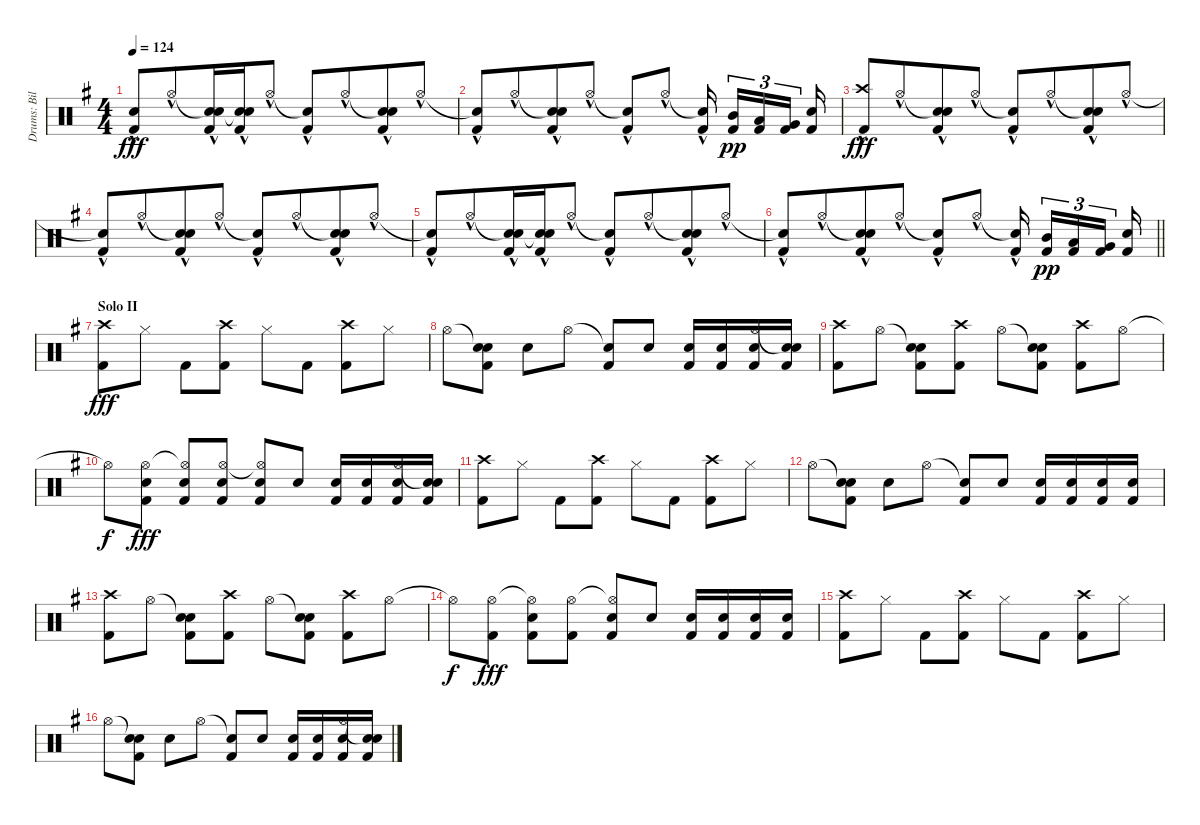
\track ("Drums: Bill" "Drums: Bil") {instrument percussion}
\staff {score}
\articulation defaults
\ts (4 4)
\tempo 124
\clef neutral
\ks g
("Snare (hit)"{t} "Kick (hit) 2"{hac}).8{dy fff beam Up beam merge} "Hi-Hat (open)"{hac}.8{beam Up beam merge} ("Snare (hit)"{t} "Electric Snare (hit)"{hac} "Kick (hit) 2"{hac}).16{beam Up beam merge} ("Snare (hit)"{t} "Electric Snare (hit)"{hac} "Kick (hit) 2"{hac}).16{beam Up beam merge} "Hi-Hat (open)"{hac}.8{beam Up} ("Snare (hit)"{t} "Kick (hit) 2"{hac}).8{beam Up beam merge} "Hi-Hat (open)"{hac}.8{beam Up beam merge} ("Snare (hit)"{t} "Electric Snare (hit)"{hac} "Kick (hit) 2"{hac}).8{beam Up beam merge} "Hi-Hat (open)"{hac}.8{beam Up} |
("Snare (hit)"{t} "Kick (hit) 2"{hac}).8{beam Up beam merge} "Hi-Hat (open)"{hac}.8{beam Up beam merge} ("Snare (hit)"{t} "Electric Snare (hit)"{hac} "Kick (hit) 2"{hac}).8{beam Up beam merge} "Hi-Hat (open)"{hac}.8{beam Up} ("Snare (hit)"{t} "Kick (hit) 2"{hac}).8{beam Up beam merge} "Hi-Hat (open)"{hac}.8{beam Up} ("Snare (hit)"{t} "Kick (hit) 2"{hac}).16{beam Up beam splitsecondary} ("Mid Tom (hit)" "Kick (hit) 2").16{tu (3 2) dy pp} ("Low Tom (hit)" "Kick (hit) 2").16{tu (3 2)} ("Very Low Tom (hit)" "Kick (hit) 2").16{tu (3 2) beam splitsecondary} ("Electric Snare (hit)" "Kick (hit) 2").16 |
("Crash high (hit)"{hac} "Kick (hit) 2"{hac}).8{dy fff beam Up beam merge} "Hi-Hat (open)"{hac}.8{beam Up beam merge} ("Snare (hit)"{t} "Electric Snare (hit)"{hac} "Kick (hit) 2"{hac}).8{beam Up beam merge} "Hi-Hat (open)"{hac}.8{beam Up} ("Snare (hit)"{t} "Kick (hit) 2"{hac}).8{beam Up beam merge} "Hi-Hat (open)"{hac}.8{beam Up beam merge} ("Snare (hit)"{t} "Electric Snare (hit)"{hac} "Kick (hit) 2"{hac}).8{beam Up beam merge} "Hi-Hat (open)"{hac}.8{beam Up} |
("Snare (hit)"{t} "Kick (hit) 2"{hac}).8{beam Up beam merge} "Hi-Hat (open)"{hac}.8{beam Up beam merge} ("Snare (hit)"{t} "Electric Snare (hit)"{hac} "Kick (hit) 2"{hac}).8{beam Up beam merge} "Hi-Hat (open)"{hac}.8{beam Up} ("Snare (hit)"{t} "Kick (hit) 2"{hac}).8{beam Up beam merge} "Hi-Hat (open)"{hac}.8{beam Up beam merge} ("Snare (hit)"{t} "Electric Snare (hit)"{hac} "Kick (hit) 2"{hac}).8{beam Up beam merge} "Hi-Hat (open)"{hac}.8{beam Up} |
("Snare (hit)"{t} "Kick (hit) 2"{hac}).8{beam Up beam merge} "Hi-Hat (open)"{hac}.8{beam Up beam merge} ("Snare (hit)"{t} "Electric Snare (hit)"{hac} "Kick (hit) 2"{hac}).16{beam Up beam merge} ("Snare (hit)"{t} "Electric Snare (hit)"{hac} "Kick (hit) 2"{hac}).16{beam Up beam merge} "Hi-Hat (open)"{hac}.8{beam Up} ("Snare (hit)"{t} "Kick (hit) 2"{hac}).8{beam Up beam merge} "Hi-Hat (open)"{hac}.8{beam Up beam merge} ("Snare (hit)"{t} "Electric Snare (hit)"{hac} "Kick (hit) 2"{hac}).8{beam Up beam merge} "Hi-Hat (open)"{hac}.8{beam Up} |
\barLineRight lightlight
("Snare (hit)"{t} "Kick (hit) 2"{hac}).8{beam Up beam merge} "Hi-Hat (open)"{hac}.8{beam Up beam merge} ("Snare (hit)"{t} "Electric Snare (hit)"{hac} "Kick (hit) 2"{hac}).8{beam Up beam merge} "Hi-Hat (open)"{hac}.8{beam Up} ("Snare (hit)"{t} "Kick (hit) 2"{hac}).8{beam Up beam merge} "Hi-Hat (open)"{hac}.8{beam Up} ("Snare (hit)"{t} "Kick (hit) 2"{hac}).16{beam Up beam splitsecondary} ("Mid Tom (hit)" "Kick (hit) 2").16{tu (3 2) dy pp} ("Low Tom (hit)" "Kick (hit) 2").16{tu (3 2)} ("Very Low Tom (hit)" "Kick (hit) 2").16{tu (3 2) beam splitsecondary} ("Electric Snare (hit)" "Kick (hit) 2").16 |
\section ("" "Solo II")
("Crash high (hit)" "Kick (hit) 2").8{dy fff} "Hi-Hat (closed)".8 "Kick (hit) 2".8 ("Crash high (hit)" "Kick (hit) 2").8 "Hi-Hat (closed)".8 "Kick (hit) 2".8 ("Crash high (hit)" "Kick (hit) 2").8 "Hi-Hat (closed)".8 |
"Hi-Hat (open)".8 ("Snare (hit)"{t} "Electric Snare (hit)" "Kick (hit) 2").8 "Electric Snare (hit)".8 "Hi-Hat (open)".8 ("Snare (hit)"{t} "Kick (hit) 2").8 "Electric Snare (hit)".8 ("Electric Snare (hit)" "Kick (hit) 2").16 ("Electric Snare (hit)" "Kick (hit) 2").16 ("Hi-Hat (open)" "Electric Snare (hit)" "Kick (hit) 2").16 ("Snare (hit)"{t} "Electric Snare (hit)" "Kick (hit) 2").16 |
("Crash high (hit)" "Kick (hit) 2").8 "Hi-Hat (open)".8 ("Snare (hit)"{t} "Electric Snare (hit)" "Kick (hit) 2").8 ("Crash high (hit)" "Kick (hit) 2").8 "Hi-Hat (open)".8 ("Snare (hit)"{t} "Electric Snare (hit)" "Kick (hit) 2").8 ("Crash high (hit)" "Kick (hit) 2").8 "Hi-Hat (open)".8 |
"Hi-Hat (open)"{t}.8{dy f} ("Hi-Hat (open)" "Electric Snare (hit)" "Kick (hit) 2").8{dy fff} ("Hi-Hat (open)"{t} "Electric Snare (hit)" "Kick (hit) 2").8 ("Hi-Hat (open)" "Electric Snare (hit)" "Kick (hit) 2").8 ("Hi-Hat (open)"{t} "Electric Snare (hit)" "Kick (hit) 2").8 "Electric Snare (hit)".8 ("Electric Snare (hit)" "Kick (hit) 2").16 ("Electric Snare (hit)" "Kick (hit) 2").16 ("Hi-Hat (open)" "Electric Snare (hit)" "Kick (hit) 2").16 ("Snare (hit)"{t} "Electric Snare (hit)" "Kick (hit) 2").16 |
("Crash high (hit)" "Kick (hit) 2").8 "Hi-Hat (closed)".8 "Kick (hit) 2".8 ("Crash high (hit)" "Kick (hit) 2").8 "Hi-Hat (closed)".8 "Kick (hit) 2".8 ("Crash high (hit)" "Kick (hit) 2").8 "Hi-Hat (closed)".8 |
"Hi-Hat (open)".8 ("Snare (hit)"{t} "Electric Snare (hit)" "Kick (hit) 2").8 "Electric Snare (hit)".8 "Hi-Hat (open)".8 ("Snare (hit)"{t} "Kick (hit) 2").8 "Electric Snare (hit)".8 ("Electric Snare (hit)" "Kick (hit) 2").16 ("Electric Snare (hit)" "Kick (hit) 2").16 ("Electric Snare (hit)" "Kick (hit) 2").16 ("Electric Snare (hit)" "Kick (hit) 2").16 |
("Crash high (hit)" "Kick (hit) 2").8 "Hi-Hat (open)".8 ("Snare (hit)"{t} "Electric Snare (hit)" "Kick (hit) 2").8 ("Crash high (hit)" "Kick (hit) 2").8 "Hi-Hat (open)".8 ("Snare (hit)"{t} "Electric Snare (hit)" "Kick (hit) 2").8 ("Crash high (hit)" "Kick (hit) 2").8 "Hi-Hat (open)".8 |
"Hi-Hat (open)"{t}.8{dy f} ("Hi-Hat (open)" "Kick (hit) 2").8{dy fff} ("Hi-Hat (open)"{t} "Electric Snare (hit)" "Kick (hit) 2").8 ("Hi-Hat (open)" "Kick (hit) 2").8 ("Hi-Hat (open)"{t} "Electric Snare (hit)" "Kick (hit) 2").8 "Electric Snare (hit)".8 ("Electric Snare (hit)" "Kick (hit) 2").16 ("Electric Snare (hit)" "Kick (hit) 2").16 ("Electric Snare (hit)" "Kick (hit) 2").16 ("Electric Snare (hit)" "Kick (hit) 2").16 |
("Crash high (hit)" "Kick (hit) 2").8 "Hi-Hat (closed)".8 "Kick (hit) 2".8 ("Crash high (hit)" "Kick (hit) 2").8 "Hi-Hat (closed)".8 "Kick (hit) 2".8 ("Crash high (hit)" "Kick (hit) 2").8 "Hi-Hat (closed)".8 |
"Hi-Hat (open)".8 ("Snare (hit)"{t} "Electric Snare (hit)" "Kick (hit) 2").8 "Electric Snare (hit)".8 "Hi-Hat (open)".8 ("Snare (hit)"{t} "Kick (hit) 2").8 "Electric Snare (hit)".8 ("Electric Snare (hit)" "Kick (hit) 2").16 ("Electric Snare (hit)" "Kick (hit) 2").16 ("Hi-Hat (open)" "Electric Snare (hit)" "Kick (hit) 2").16 ("Snare (hit)"{t} "Electric Snare (hit)" "Kick (hit) 2").16
